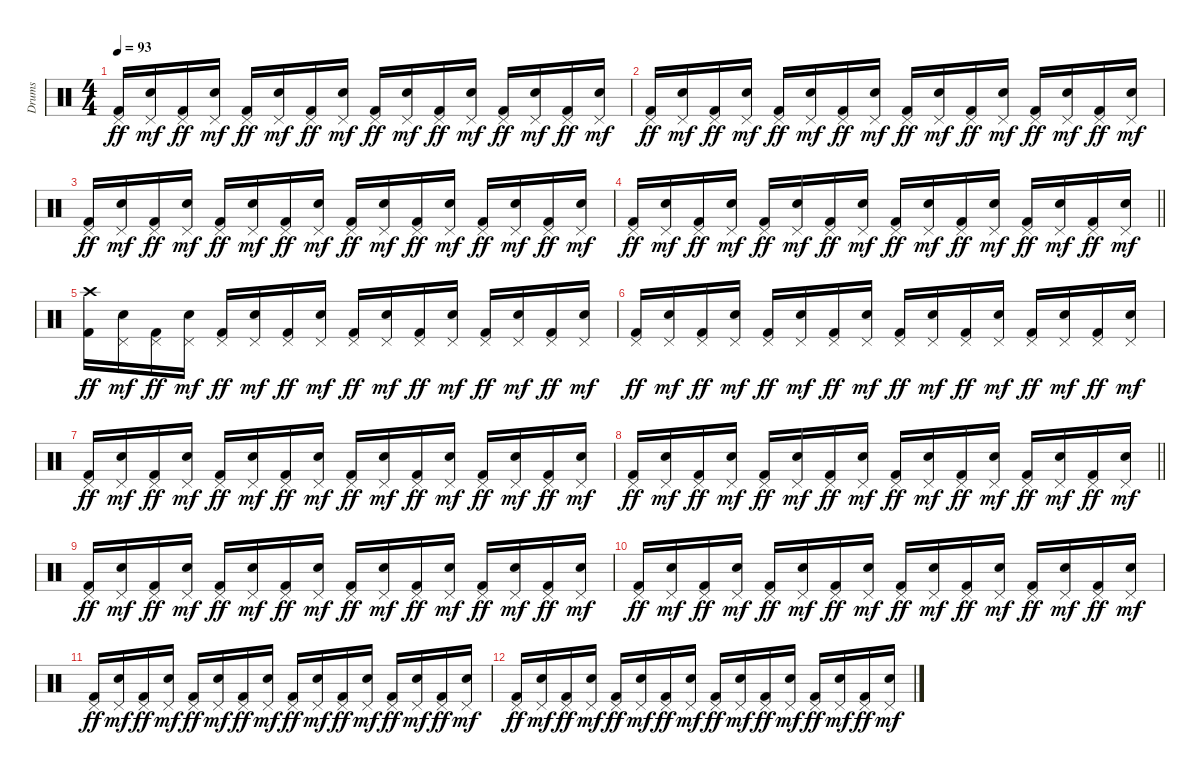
\track ("Drums" "Drums") {instrument percussion}
\staff {score}
\articulation defaults
\ts (4 4)
\tempo 93
\clef neutral
\ks c
("Pedal Hi-Hat (hit)" "Kick (hit) 2").16{dy ff} ("Pedal Hi-Hat (hit)" "Electric Snare (hit)").16{dy mf} ("Pedal Hi-Hat (hit)" "Kick (hit) 2").16{dy ff} ("Pedal Hi-Hat (hit)" "Electric Snare (hit)").16{dy mf} ("Pedal Hi-Hat (hit)" "Kick (hit) 2").16{dy ff} ("Pedal Hi-Hat (hit)" "Electric Snare (hit)").16{dy mf} ("Pedal Hi-Hat (hit)" "Kick (hit) 2").16{dy ff} ("Pedal Hi-Hat (hit)" "Electric Snare (hit)").16{dy mf} ("Pedal Hi-Hat (hit)" "Kick (hit) 2").16{dy ff} ("Pedal Hi-Hat (hit)" "Electric Snare (hit)").16{dy mf} ("Pedal Hi-Hat (hit)" "Kick (hit) 2").16{dy ff} ("Pedal Hi-Hat (hit)" "Electric Snare (hit)").16{dy mf} ("Pedal Hi-Hat (hit)" "Kick (hit) 2").16{dy ff} ("Pedal Hi-Hat (hit)" "Electric Snare (hit)").16{dy mf} ("Pedal Hi-Hat (hit)" "Kick (hit) 2").16{dy ff} ("Pedal Hi-Hat (hit)" "Electric Snare (hit)").16{dy mf} |
("Pedal Hi-Hat (hit)" "Kick (hit) 2").16{dy ff} ("Pedal Hi-Hat (hit)" "Electric Snare (hit)").16{dy mf} ("Pedal Hi-Hat (hit)" "Kick (hit) 2").16{dy ff} ("Pedal Hi-Hat (hit)" "Electric Snare (hit)").16{dy mf} ("Pedal Hi-Hat (hit)" "Kick (hit) 2").16{dy ff} ("Pedal Hi-Hat (hit)" "Electric Snare (hit)").16{dy mf} ("Pedal Hi-Hat (hit)" "Kick (hit) 2").16{dy ff} ("Pedal Hi-Hat (hit)" "Electric Snare (hit)").16{dy mf} ("Pedal Hi-Hat (hit)" "Kick (hit) 2").16{dy ff} ("Pedal Hi-Hat (hit)" "Electric Snare (hit)").16{dy mf} ("Pedal Hi-Hat (hit)" "Kick (hit) 2").16{dy ff} ("Pedal Hi-Hat (hit)" "Electric Snare (hit)").16{dy mf} ("Pedal Hi-Hat (hit)" "Kick (hit) 2").16{dy ff} ("Pedal Hi-Hat (hit)" "Electric Snare (hit)").16{dy mf} ("Pedal Hi-Hat (hit)" "Kick (hit) 2").16{dy ff} ("Pedal Hi-Hat (hit)" "Electric Snare (hit)").16{dy mf} |
("Pedal Hi-Hat (hit)" "Kick (hit) 2").16{dy ff} ("Pedal Hi-Hat (hit)" "Electric Snare (hit)").16{dy mf} ("Pedal Hi-Hat (hit)" "Kick (hit) 2").16{dy ff} ("Pedal Hi-Hat (hit)" "Electric Snare (hit)").16{dy mf} ("Pedal Hi-Hat (hit)" "Kick (hit) 2").16{dy ff} ("Pedal Hi-Hat (hit)" "Electric Snare (hit)").16{dy mf} ("Pedal Hi-Hat (hit)" "Kick (hit) 2").16{dy ff} ("Pedal Hi-Hat (hit)" "Electric Snare (hit)").16{dy mf} ("Pedal Hi-Hat (hit)" "Kick (hit) 2").16{dy ff} ("Pedal Hi-Hat (hit)" "Electric Snare (hit)").16{dy mf} ("Pedal Hi-Hat (hit)" "Kick (hit) 2").16{dy ff} ("Pedal Hi-Hat (hit)" "Electric Snare (hit)").16{dy mf} ("Pedal Hi-Hat (hit)" "Kick (hit) 2").16{dy ff} ("Pedal Hi-Hat (hit)" "Electric Snare (hit)").16{dy mf} ("Pedal Hi-Hat (hit)" "Kick (hit) 2").16{dy ff} ("Pedal Hi-Hat (hit)" "Electric Snare (hit)").16{dy mf} |
\barLineRight lightlight
("Pedal Hi-Hat (hit)" "Kick (hit) 2").16{dy ff} ("Pedal Hi-Hat (hit)" "Electric Snare (hit)").16{dy mf} ("Pedal Hi-Hat (hit)" "Kick (hit) 2").16{dy ff} ("Pedal Hi-Hat (hit)" "Electric Snare (hit)").16{dy mf} ("Pedal Hi-Hat (hit)" "Kick (hit) 2").16{dy ff} ("Pedal Hi-Hat (hit)" "Electric Snare (hit)").16{dy mf} ("Pedal Hi-Hat (hit)" "Kick (hit) 2").16{dy ff} ("Pedal Hi-Hat (hit)" "Electric Snare (hit)").16{dy mf} ("Pedal Hi-Hat (hit)" "Kick (hit) 2").16{dy ff} ("Pedal Hi-Hat (hit)" "Electric Snare (hit)").16{dy mf} ("Pedal Hi-Hat (hit)" "Kick (hit) 2").16{dy ff} ("Pedal Hi-Hat (hit)" "Electric Snare (hit)").16{dy mf} ("Pedal Hi-Hat (hit)" "Kick (hit) 2").16{dy ff} ("Pedal Hi-Hat (hit)" "Electric Snare (hit)").16{dy mf} ("Pedal Hi-Hat (hit)" "Kick (hit) 2").16{dy ff} ("Pedal Hi-Hat (hit)" "Electric Snare (hit)").16{dy mf} |
("Crash high (hit)" "Kick (hit) 2").16{dy ff} ("Pedal Hi-Hat (hit)" "Electric Snare (hit)").16{dy mf} ("Pedal Hi-Hat (hit)" "Kick (hit) 2").16{dy ff} ("Pedal Hi-Hat (hit)" "Electric Snare (hit)").16{dy mf} ("Pedal Hi-Hat (hit)" "Kick (hit) 2").16{dy ff} ("Pedal Hi-Hat (hit)" "Electric Snare (hit)").16{dy mf} ("Pedal Hi-Hat (hit)" "Kick (hit) 2").16{dy ff} ("Pedal Hi-Hat (hit)" "Electric Snare (hit)").16{dy mf} ("Pedal Hi-Hat (hit)" "Kick (hit) 2").16{dy ff} ("Pedal Hi-Hat (hit)" "Electric Snare (hit)").16{dy mf} ("Pedal Hi-Hat (hit)" "Kick (hit) 2").16{dy ff} ("Pedal Hi-Hat (hit)" "Electric Snare (hit)").16{dy mf} ("Pedal Hi-Hat (hit)" "Kick (hit) 2").16{dy ff} ("Pedal Hi-Hat (hit)" "Electric Snare (hit)").16{dy mf} ("Pedal Hi-Hat (hit)" "Kick (hit) 2").16{dy ff} ("Pedal Hi-Hat (hit)" "Electric Snare (hit)").16{dy mf} |
("Pedal Hi-Hat (hit)" "Kick (hit) 2").16{dy ff} ("Pedal Hi-Hat (hit)" "Electric Snare (hit)").16{dy mf} ("Pedal Hi-Hat (hit)" "Kick (hit) 2").16{dy ff} ("Pedal Hi-Hat (hit)" "Electric Snare (hit)").16{dy mf} ("Pedal Hi-Hat (hit)" "Kick (hit) 2").16{dy ff} ("Pedal Hi-Hat (hit)" "Electric Snare (hit)").16{dy mf} ("Pedal Hi-Hat (hit)" "Kick (hit) 2").16{dy ff} ("Pedal Hi-Hat (hit)" "Electric Snare (hit)").16{dy mf} ("Pedal Hi-Hat (hit)" "Kick (hit) 2").16{dy ff} ("Pedal Hi-Hat (hit)" "Electric Snare (hit)").16{dy mf} ("Pedal Hi-Hat (hit)" "Kick (hit) 2").16{dy ff} ("Pedal Hi-Hat (hit)" "Electric Snare (hit)").16{dy mf} ("Pedal Hi-Hat (hit)" "Kick (hit) 2").16{dy ff} ("Pedal Hi-Hat (hit)" "Electric Snare (hit)").16{dy mf} ("Pedal Hi-Hat (hit)" "Kick (hit) 2").16{dy ff} ("Pedal Hi-Hat (hit)" "Electric Snare (hit)").16{dy mf} |
("Pedal Hi-Hat (hit)" "Kick (hit) 2").16{dy ff} ("Pedal Hi-Hat (hit)" "Electric Snare (hit)").16{dy mf} ("Pedal Hi-Hat (hit)" "Kick (hit) 2").16{dy ff} ("Pedal Hi-Hat (hit)" "Electric Snare (hit)").16{dy mf} ("Pedal Hi-Hat (hit)" "Kick (hit) 2").16{dy ff} ("Pedal Hi-Hat (hit)" "Electric Snare (hit)").16{dy mf} ("Pedal Hi-Hat (hit)" "Kick (hit) 2").16{dy ff} ("Pedal Hi-Hat (hit)" "Electric Snare (hit)").16{dy mf} ("Pedal Hi-Hat (hit)" "Kick (hit) 2").16{dy ff} ("Pedal Hi-Hat (hit)" "Electric Snare (hit)").16{dy mf} ("Pedal Hi-Hat (hit)" "Kick (hit) 2").16{dy ff} ("Pedal Hi-Hat (hit)" "Electric Snare (hit)").16{dy mf} ("Pedal Hi-Hat (hit)" "Kick (hit) 2").16{dy ff} ("Pedal Hi-Hat (hit)" "Electric Snare (hit)").16{dy mf} ("Pedal Hi-Hat (hit)" "Kick (hit) 2").16{dy ff} ("Pedal Hi-Hat (hit)" "Electric Snare (hit)").16{dy mf} |
\barLineRight lightlight
("Pedal Hi-Hat (hit)" "Kick (hit) 2").16{dy ff} ("Pedal Hi-Hat (hit)" "Electric Snare (hit)").16{dy mf} ("Pedal Hi-Hat (hit)" "Kick (hit) 2").16{dy ff} ("Pedal Hi-Hat (hit)" "Electric Snare (hit)").16{dy mf} ("Pedal Hi-Hat (hit)" "Kick (hit) 2").16{dy ff} ("Pedal Hi-Hat (hit)" "Electric Snare (hit)").16{dy mf} ("Pedal Hi-Hat (hit)" "Kick (hit) 2").16{dy ff} ("Pedal Hi-Hat (hit)" "Electric Snare (hit)").16{dy mf} ("Pedal Hi-Hat (hit)" "Kick (hit) 2").16{dy ff} ("Pedal Hi-Hat (hit)" "Electric Snare (hit)").16{dy mf} ("Pedal Hi-Hat (hit)" "Kick (hit) 2").16{dy ff} ("Pedal Hi-Hat (hit)" "Electric Snare (hit)").16{dy mf} ("Pedal Hi-Hat (hit)" "Kick (hit) 2").16{dy ff} ("Pedal Hi-Hat (hit)" "Electric Snare (hit)").16{dy mf} ("Pedal Hi-Hat (hit)" "Kick (hit) 2").16{dy ff} ("Pedal Hi-Hat (hit)" "Electric Snare (hit)").16{dy mf} |
("Pedal Hi-Hat (hit)" "Kick (hit) 2").16{dy ff} ("Pedal Hi-Hat (hit)" "Electric Snare (hit)").16{dy mf} ("Pedal Hi-Hat (hit)" "Kick (hit) 2").16{dy ff} ("Pedal Hi-Hat (hit)" "Electric Snare (hit)").16{dy mf} ("Pedal Hi-Hat (hit)" "Kick (hit) 2").16{dy ff} ("Pedal Hi-Hat (hit)" "Electric Snare (hit)").16{dy mf} ("Pedal Hi-Hat (hit)" "Kick (hit) 2").16{dy ff} ("Pedal Hi-Hat (hit)" "Electric Snare (hit)").16{dy mf} ("Pedal Hi-Hat (hit)" "Kick (hit) 2").16{dy ff} ("Pedal Hi-Hat (hit)" "Electric Snare (hit)").16{dy mf} ("Pedal Hi-Hat (hit)" "Kick (hit) 2").16{dy ff} ("Pedal Hi-Hat (hit)" "Electric Snare (hit)").16{dy mf} ("Pedal Hi-Hat (hit)" "Kick (hit) 2").16{dy ff} ("Pedal Hi-Hat (hit)" "Electric Snare (hit)").16{dy mf} ("Pedal Hi-Hat (hit)" "Kick (hit) 2").16{dy ff} ("Pedal Hi-Hat (hit)" "Electric Snare (hit)").16{dy mf} |
("Pedal Hi-Hat (hit)" "Kick (hit) 2").16{dy ff} ("Pedal Hi-Hat (hit)" "Electric Snare (hit)").16{dy mf} ("Pedal Hi-Hat (hit)" "Kick (hit) 2").16{dy ff} ("Pedal Hi-Hat (hit)" "Electric Snare (hit)").16{dy mf} ("Pedal Hi-Hat (hit)" "Kick (hit) 2").16{dy ff} ("Pedal Hi-Hat (hit)" "Electric Snare (hit)").16{dy mf} ("Pedal Hi-Hat (hit)" "Kick (hit) 2").16{dy ff} ("Pedal Hi-Hat (hit)" "Electric Snare (hit)").16{dy mf} ("Pedal Hi-Hat (hit)" "Kick (hit) 2").16{dy ff} ("Pedal Hi-Hat (hit)" "Electric Snare (hit)").16{dy mf} ("Pedal Hi-Hat (hit)" "Kick (hit) 2").16{dy ff} ("Pedal Hi-Hat (hit)" "Electric Snare (hit)").16{dy mf} ("Pedal Hi-Hat (hit)" "Kick (hit) 2").16{dy ff} ("Pedal Hi-Hat (hit)" "Electric Snare (hit)").16{dy mf} ("Pedal Hi-Hat (hit)" "Kick (hit) 2").16{dy ff} ("Pedal Hi-Hat (hit)" "Electric Snare (hit)").16{dy mf} |
("Pedal Hi-Hat (hit)" "Kick (hit) 2").16{dy ff} ("Pedal Hi-Hat (hit)" "Electric Snare (hit)").16{dy mf} ("Pedal Hi-Hat (hit)" "Kick (hit) 2").16{dy ff} ("Pedal Hi-Hat (hit)" "Electric Snare (hit)").16{dy mf} ("Pedal Hi-Hat (hit)" "Kick (hit) 2").16{dy ff} ("Pedal Hi-Hat (hit)" "Electric Snare (hit)").16{dy mf} ("Pedal Hi-Hat (hit)" "Kick (hit) 2").16{dy ff} ("Pedal Hi-Hat (hit)" "Electric Snare (hit)").16{dy mf} ("Pedal Hi-Hat (hit)" "Kick (hit) 2").16{dy ff} ("Pedal Hi-Hat (hit)" "Electric Snare (hit)").16{dy mf} ("Pedal Hi-Hat (hit)" "Kick (hit) 2").16{dy ff} ("Pedal Hi-Hat (hit)" "Electric Snare (hit)").16{dy mf} ("Pedal Hi-Hat (hit)" "Kick (hit) 2").16{dy ff} ("Pedal Hi-Hat (hit)" "Electric Snare (hit)").16{dy mf} ("Pedal Hi-Hat (hit)" "Kick (hit) 2").16{dy ff} ("Pedal Hi-Hat (hit)" "Electric Snare (hit)").16{dy mf} |
("Pedal Hi-Hat (hit)" "Kick (hit) 2").16{dy ff} ("Pedal Hi-Hat (hit)" "Electric Snare (hit)").16{dy mf} ("Pedal Hi-Hat (hit)" "Kick (hit) 2").16{dy ff} ("Pedal Hi-Hat (hit)" "Electric Snare (hit)").16{dy mf} ("Pedal Hi-Hat (hit)" "Kick (hit) 2").16{dy ff} ("Pedal Hi-Hat (hit)" "Electric Snare (hit)").16{dy mf} ("Pedal Hi-Hat (hit)" "Kick (hit) 2").16{dy ff} ("Pedal Hi-Hat (hit)" "Electric Snare (hit)").16{dy mf} ("Pedal Hi-Hat (hit)" "Kick (hit) 2").16{dy ff} ("Pedal Hi-Hat (hit)" "Electric Snare (hit)").16{dy mf} ("Pedal Hi-Hat (hit)" "Kick (hit) 2").16{dy ff} ("Pedal Hi-Hat (hit)" "Electric Snare (hit)").16{dy mf} ("Pedal Hi-Hat (hit)" "Kick (hit) 2").16{dy ff} ("Pedal Hi-Hat (hit)" "Electric Snare (hit)").16{dy mf} ("Pedal Hi-Hat (hit)" "Kick (hit) 2").16{dy ff} ("Pedal Hi-Hat (hit)" "Electric Snare (hit)").16{dy mf}
